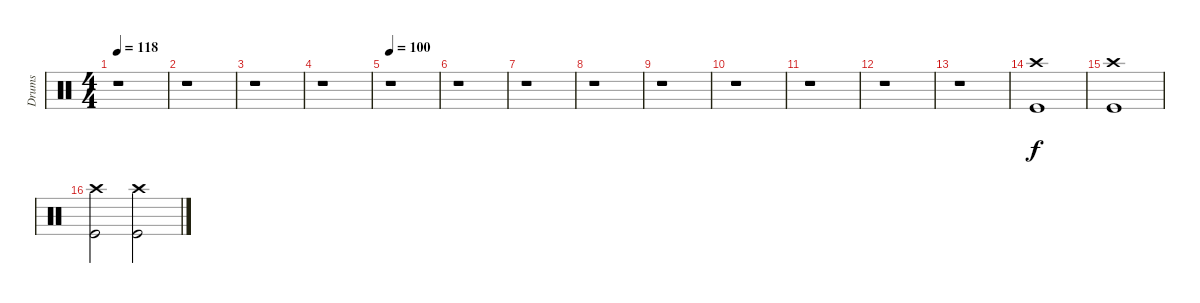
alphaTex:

\track ("Drums" "Drums") {instrument percussion}
\staff {score}
\articulation defaults
\ts (4 4)
\tempo 118
\tempo 95
\tempo 118
\clef neutral
\ks c
r.1{dy f} |
r.1 |
r.1 |
r.1 |
\tempo 100
r.1 |
r.1 |
r.1 |
r.1 |
r.1 |
r.1 |
r.1 |
r.1 |
r.1 |
("Crash high (hit)" "Kick (hit)").1 |
("Crash high (hit)" "Kick (hit)").1 |
("Crash high (hit)" "Kick (hit)").2 ("Crash high (hit)" "Kick (hit)").2
